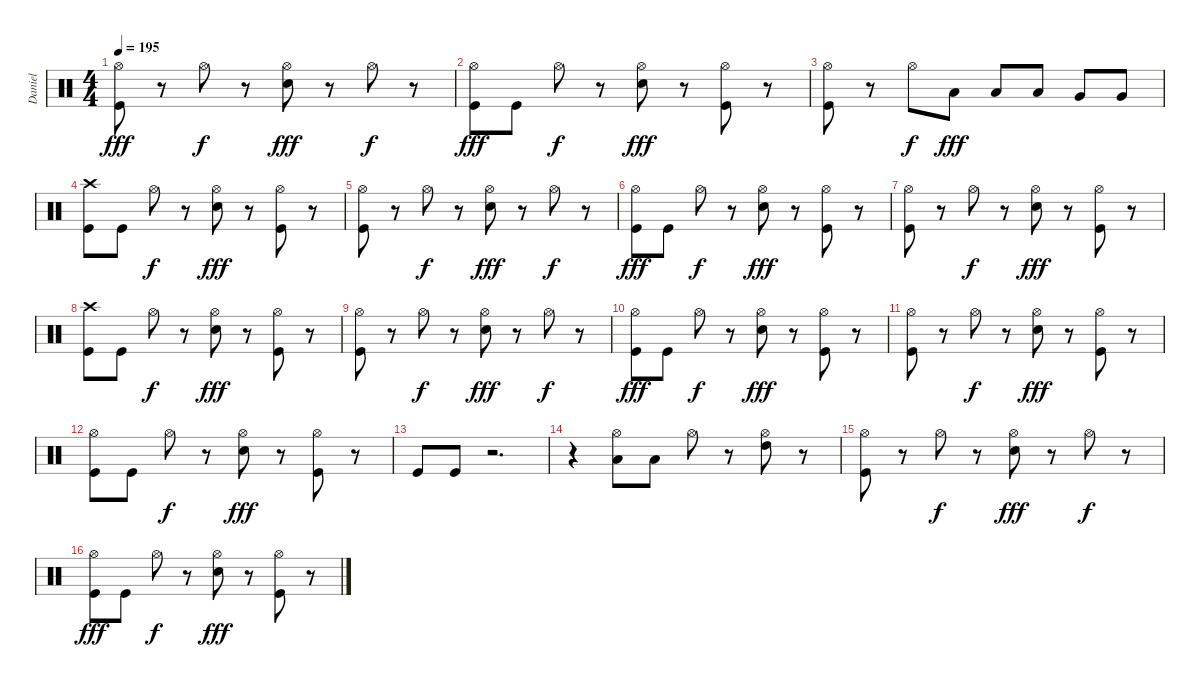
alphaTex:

\track ("Daniel" "Daniel") {instrument percussion}
\staff {score}
\articulation defaults
\ts (4 4)
\tempo 195
\clef neutral
\ks c
("Hi-Hat (open)" "Kick (hit)").8{dy fff} r.8 "Hi-Hat (open)".8{dy f} r.8 ("Hi-Hat (open)" "Snare (hit) 2").8{dy fff} r.8 "Hi-Hat (open)".8{dy f} r.8 |
("Hi-Hat (open)" "Kick (hit)").8{dy fff} "Kick (hit)".8 "Hi-Hat (open)".8{dy f} r.8 ("Hi-Hat (open)" "Snare (hit) 2").8{dy fff} r.8 ("Hi-Hat (open)" "Kick (hit)").8 r.8 |
("Hi-Hat (open)" "Kick (hit)").8 r.8 "Hi-Hat (open)".8{dy f} "Low Tom (hit)".8{dy fff} "Low Tom (hit)".8 "Low Tom (hit)".8 "Very Low Tom (hit)".8 "Very Low Tom (hit)".8 |
("Crash high (hit)" "Kick (hit)").8 "Kick (hit)".8 "Hi-Hat (open)".8{dy f} r.8 ("Hi-Hat (open)" "Snare (hit) 2").8{dy fff} r.8 ("Hi-Hat (open)" "Kick (hit)").8 r.8 |
("Hi-Hat (open)" "Kick (hit)").8 r.8 "Hi-Hat (open)".8{dy f} r.8 ("Hi-Hat (open)" "Snare (hit) 2").8{dy fff} r.8 "Hi-Hat (open)".8{dy f} r.8 |
("Hi-Hat (open)" "Kick (hit)").8{dy fff} "Kick (hit)".8 "Hi-Hat (open)".8{dy f} r.8 ("Hi-Hat (open)" "Snare (hit) 2").8{dy fff} r.8 ("Hi-Hat (open)" "Kick (hit)").8 r.8 |
("Hi-Hat (open)" "Kick (hit)").8 r.8 "Hi-Hat (open)".8{dy f} r.8 ("Hi-Hat (open)" "Snare (hit) 2").8{dy fff} r.8 ("Hi-Hat (open)" "Kick (hit)").8 r.8 |
("Crash high (hit)" "Kick (hit)").8 "Kick (hit)".8 "Hi-Hat (open)".8{dy f} r.8 ("Hi-Hat (open)" "Snare (hit) 2").8{dy fff} r.8 ("Hi-Hat (open)" "Kick (hit)").8 r.8 |
("Hi-Hat (open)" "Kick (hit)").8 r.8 "Hi-Hat (open)".8{dy f} r.8 ("Hi-Hat (open)" "Snare (hit) 2").8{dy fff} r.8 "Hi-Hat (open)".8{dy f} r.8 |
("Hi-Hat (open)" "Kick (hit)").8{dy fff} "Kick (hit)".8 "Hi-Hat (open)".8{dy f} r.8 ("Hi-Hat (open)" "Snare (hit) 2").8{dy fff} r.8 ("Hi-Hat (open)" "Kick (hit)").8 r.8 |
("Hi-Hat (open)" "Kick (hit)").8 r.8 "Hi-Hat (open)".8{dy f} r.8 ("Hi-Hat (open)" "Snare (hit) 2").8{dy fff} r.8 ("Hi-Hat (open)" "Kick (hit)").8 r.8 |
("Hi-Hat (open)" "Kick (hit)").8 "Kick (hit)".8 "Hi-Hat (open)".8{dy f} r.8 ("Hi-Hat (open)" "Snare (hit) 2").8{dy fff} r.8 ("Hi-Hat (open)" "Kick (hit)").8 r.8 |
"Kick (hit)".8 "Kick (hit)".8 r.2{d} |
r.4 ("Hi-Hat (open)" "Low Tom (hit)").8 "Low Tom (hit)".8 "Hi-Hat (open)".8 r.8 ("Hi-Hat (open)" "High Tom (hit)").8 r.8 |
("Hi-Hat (open)" "Kick (hit)").8 r.8 "Hi-Hat (open)".8{dy f} r.8 ("Hi-Hat (open)" "Snare (hit) 2").8{dy fff} r.8 "Hi-Hat (open)".8{dy f} r.8 |
("Hi-Hat (open)" "Kick (hit)").8{dy fff} "Kick (hit)".8 "Hi-Hat (open)".8{dy f} r.8 ("Hi-Hat (open)" "Snare (hit) 2").8{dy fff} r.8 ("Hi-Hat (open)" "Kick (hit)").8 r.8
